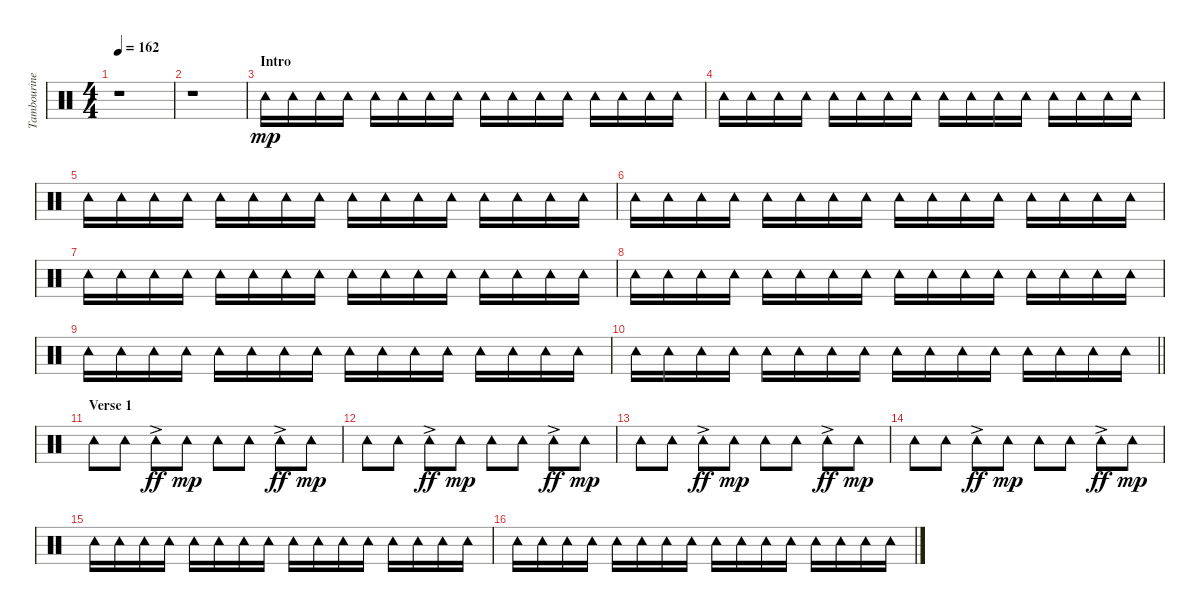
\track ("Tambourine" "Tambourine") {instrument percussion}
\staff {score}
\articulation defaults
\ts (4 4)
\tempo 162
\clef neutral
\ks c
r.1{dy mp} |
r.1 |
\section ("" "Intro")
"Tambourine (hit)".16 "Tambourine (hit)".16 "Tambourine (hit)".16 "Tambourine (hit)".16 "Tambourine (hit)".16 "Tambourine (hit)".16 "Tambourine (hit)".16 "Tambourine (hit)".16 "Tambourine (hit)".16 "Tambourine (hit)".16 "Tambourine (hit)".16 "Tambourine (hit)".16 "Tambourine (hit)".16 "Tambourine (hit)".16 "Tambourine (hit)".16 "Tambourine (hit)".16 |
"Tambourine (hit)".16 "Tambourine (hit)".16 "Tambourine (hit)".16 "Tambourine (hit)".16 "Tambourine (hit)".16 "Tambourine (hit)".16 "Tambourine (hit)".16 "Tambourine (hit)".16 "Tambourine (hit)".16 "Tambourine (hit)".16 "Tambourine (hit)".16 "Tambourine (hit)".16 "Tambourine (hit)".16 "Tambourine (hit)".16 "Tambourine (hit)".16 "Tambourine (hit)".16 |
"Tambourine (hit)".16 "Tambourine (hit)".16 "Tambourine (hit)".16 "Tambourine (hit)".16 "Tambourine (hit)".16 "Tambourine (hit)".16 "Tambourine (hit)".16 "Tambourine (hit)".16 "Tambourine (hit)".16 "Tambourine (hit)".16 "Tambourine (hit)".16 "Tambourine (hit)".16 "Tambourine (hit)".16 "Tambourine (hit)".16 "Tambourine (hit)".16 "Tambourine (hit)".16 |
"Tambourine (hit)".16 "Tambourine (hit)".16 "Tambourine (hit)".16 "Tambourine (hit)".16 "Tambourine (hit)".16 "Tambourine (hit)".16 "Tambourine (hit)".16 "Tambourine (hit)".16 "Tambourine (hit)".16 "Tambourine (hit)".16 "Tambourine (hit)".16 "Tambourine (hit)".16 "Tambourine (hit)".16 "Tambourine (hit)".16 "Tambourine (hit)".16 "Tambourine (hit)".16 |
"Tambourine (hit)".16 "Tambourine (hit)".16 "Tambourine (hit)".16 "Tambourine (hit)".16 "Tambourine (hit)".16 "Tambourine (hit)".16 "Tambourine (hit)".16 "Tambourine (hit)".16 "Tambourine (hit)".16 "Tambourine (hit)".16 "Tambourine (hit)".16 "Tambourine (hit)".16 "Tambourine (hit)".16 "Tambourine (hit)".16 "Tambourine (hit)".16 "Tambourine (hit)".16 |
"Tambourine (hit)".16 "Tambourine (hit)".16 "Tambourine (hit)".16 "Tambourine (hit)".16 "Tambourine (hit)".16 "Tambourine (hit)".16 "Tambourine (hit)".16 "Tambourine (hit)".16 "Tambourine (hit)".16 "Tambourine (hit)".16 "Tambourine (hit)".16 "Tambourine (hit)".16 "Tambourine (hit)".16 "Tambourine (hit)".16 "Tambourine (hit)".16 "Tambourine (hit)".16 |
"Tambourine (hit)".16 "Tambourine (hit)".16 "Tambourine (hit)".16 "Tambourine (hit)".16 "Tambourine (hit)".16 "Tambourine (hit)".16 "Tambourine (hit)".16 "Tambourine (hit)".16 "Tambourine (hit)".16 "Tambourine (hit)".16 "Tambourine (hit)".16 "Tambourine (hit)".16 "Tambourine (hit)".16 "Tambourine (hit)".16 "Tambourine (hit)".16 "Tambourine (hit)".16 |
\barLineRight lightlight "Tambourine (hit)".16 "Tambourine (hit)".16 "Tambourine (hit)".16 "Tambourine (hit)".16 "Tambourine (hit)".16 "Tambourine (hit)".16 "Tambourine (hit)".16 "Tambourine (hit)".16 "Tambourine (hit)".16 "Tambourine (hit)".16 "Tambourine (hit)".16 "Tambourine (hit)".16 "Tambourine (hit)".16 "Tambourine (hit)".16 "Tambourine (hit)".16 "Tambourine (hit)".16
|
\section ("" "Verse 1")
"Tambourine (hit)".8 "Tambourine (hit)".8 "Tambourine (hit)"{ac}.8{dy ff} "Tambourine (hit)".8{dy mp} "Tambourine (hit)".8 "Tambourine (hit)".8 "Tambourine (hit)"{ac}.8{dy ff} "Tambourine (hit)".8{dy mp} |
"Tambourine (hit)".8 "Tambourine (hit)".8 "Tambourine (hit)"{ac}.8{dy ff} "Tambourine (hit)".8{dy mp} "Tambourine (hit)".8 "Tambourine (hit)".8 "Tambourine (hit)"{ac}.8{dy ff} "Tambourine (hit)".8{dy mp} |
"Tambourine (hit)".8 "Tambourine (hit)".8 "Tambourine (hit)"{ac}.8{dy ff} "Tambourine (hit)".8{dy mp} "Tambourine (hit)".8 "Tambourine (hit)".8 "Tambourine (hit)"{ac}.8{dy ff} "Tambourine (hit)".8{dy mp} |
"Tambourine (hit)".8 "Tambourine (hit)".8 "Tambourine (hit)"{ac}.8{dy ff} "Tambourine (hit)".8{dy mp} "Tambourine (hit)".8 "Tambourine (hit)".8 "Tambourine (hit)"{ac}.8{dy ff} "Tambourine (hit)".8{dy mp} |
"Tambourine (hit)".16 "Tambourine (hit)".16 "Tambourine (hit)".16 "Tambourine (hit)".16 "Tambourine (hit)".16 "Tambourine (hit)".16 "Tambourine (hit)".16 "Tambourine (hit)".16 "Tambourine (hit)".16 "Tambourine (hit)".16 "Tambourine (hit)".16 "Tambourine (hit)".16 "Tambourine (hit)".16 "Tambourine (hit)".16 "Tambourine (hit)".16 "Tambourine (hit)".16 |
"Tambourine (hit)".16 "Tambourine (hit)".16 "Tambourine (hit)".16 "Tambourine (hit)".16 "Tambourine (hit)".16 "Tambourine (hit)".16 "Tambourine (hit)".16 "Tambourine (hit)".16 "Tambourine (hit)".16 "Tambourine (hit)".16 "Tambourine (hit)".16 "Tambourine (hit)".16 "Tambourine (hit)".16 "Tambourine (hit)".16 "Tambourine (hit)".16 "Tambourine (hit)".16
